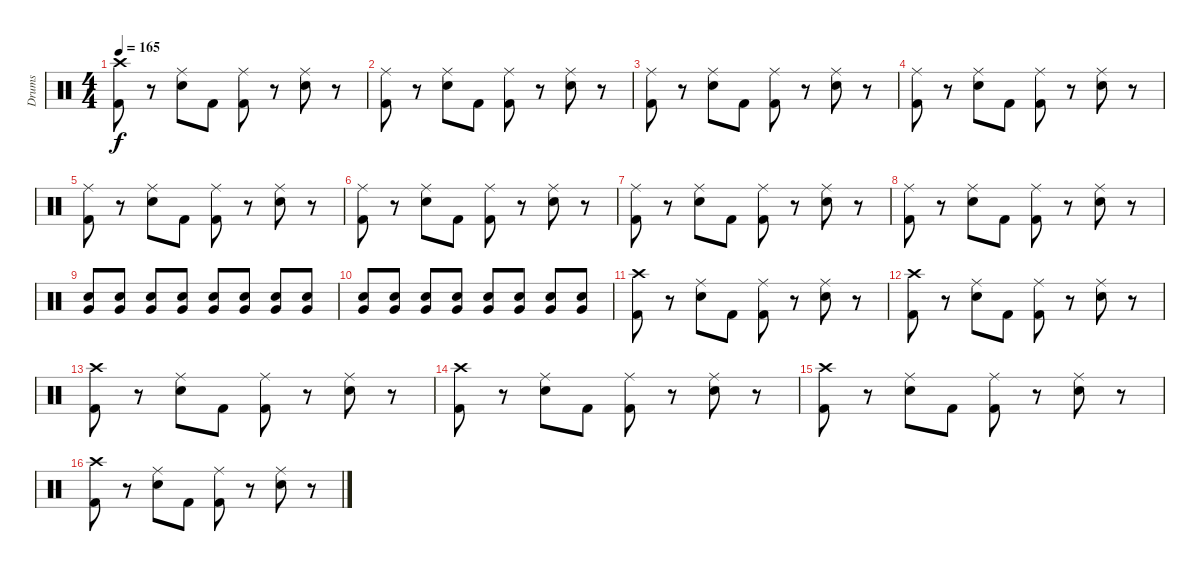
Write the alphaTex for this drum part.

\track ("Drums" "Drums") {instrument percussion}
\staff {score}
\articulation defaults
\ts (4 4)
\tempo 165
\clef neutral
\ks c
("Kick (hit) 2" "Crash high (hit)").8{dy f} r.8 ("Electric Snare (hit)" "Ride (middle)").8 "Kick (hit) 2".8 ("Ride (middle)" "Kick (hit) 2").8 r.8 ("Electric Snare (hit)" "Ride (middle)").8 r.8 |
("Kick (hit) 2" "Ride (middle)").8 r.8 ("Electric Snare (hit)" "Ride (middle)").8 "Kick (hit) 2".8 ("Ride (middle)" "Kick (hit) 2").8 r.8 ("Electric Snare (hit)" "Ride (middle)").8 r.8 |
("Kick (hit) 2" "Ride (middle)").8 r.8 ("Electric Snare (hit)" "Ride (middle)").8 "Kick (hit) 2".8 ("Ride (middle)" "Kick (hit) 2").8 r.8 ("Electric Snare (hit)" "Ride (middle)").8 r.8 |
("Kick (hit) 2" "Ride (middle)").8 r.8 ("Electric Snare (hit)" "Ride (middle)").8 "Kick (hit) 2".8 ("Ride (middle)" "Kick (hit) 2").8 r.8 ("Electric Snare (hit)" "Ride (middle)").8 r.8 |
("Kick (hit) 2" "Ride (middle)").8 r.8 ("Electric Snare (hit)" "Ride (middle)").8 "Kick (hit) 2".8 ("Ride (middle)" "Kick (hit) 2").8 r.8 ("Electric Snare (hit)" "Ride (middle)").8 r.8 |
("Kick (hit) 2" "Ride (middle)").8 r.8 ("Electric Snare (hit)" "Ride (middle)").8 "Kick (hit) 2".8 ("Ride (middle)" "Kick (hit) 2").8 r.8 ("Electric Snare (hit)" "Ride (middle)").8 r.8 |
("Kick (hit) 2" "Ride (middle)").8 r.8 ("Electric Snare (hit)" "Ride (middle)").8 "Kick (hit) 2".8 ("Ride (middle)" "Kick (hit) 2").8 r.8 ("Electric Snare (hit)" "Ride (middle)").8 r.8 |
("Kick (hit) 2" "Ride (middle)").8 r.8 ("Electric Snare (hit)" "Ride (middle)").8 "Kick (hit) 2".8 ("Ride (middle)" "Kick (hit) 2").8 r.8 ("Electric Snare (hit)" "Ride (middle)").8 r.8 |
("Very Low Tom (hit)" "Electric Snare (hit)").8 ("Very Low Tom (hit)" "Electric Snare (hit)").8 ("Very Low Tom (hit)" "Electric Snare (hit)").8 ("Very Low Tom (hit)" "Electric Snare (hit)").8 ("Very Low Tom (hit)" "Electric Snare (hit)").8 ("Very Low Tom (hit)" "Electric Snare (hit)").8 ("Very Low Tom (hit)" "Electric Snare (hit)").8 ("Very Low Tom (hit)" "Electric Snare (hit)").8 |
("Very Low Tom (hit)" "Electric Snare (hit)").8 ("Very Low Tom (hit)" "Electric Snare (hit)").8 ("Very Low Tom (hit)" "Electric Snare (hit)").8 ("Very Low Tom (hit)" "Electric Snare (hit)").8 ("Very Low Tom (hit)" "Electric Snare (hit)").8 ("Very Low Tom (hit)" "Electric Snare (hit)").8 ("Very Low Tom (hit)" "Electric Snare (hit)").8 ("Very Low Tom (hit)" "Electric Snare (hit)").8 |
("Crash high (hit)" "Kick (hit) 2").8 r.8 ("Ride (middle)" "Electric Snare (hit)").8 "Kick (hit) 2".8 ("Ride (middle)" "Kick (hit) 2").8 r.8 ("Ride (middle)" "Electric Snare (hit)").8 r.8 |
("Crash high (hit)" "Kick (hit) 2").8 r.8 ("Ride (middle)" "Electric Snare (hit)").8 "Kick (hit) 2".8 ("Ride (middle)" "Kick (hit) 2").8 r.8 ("Ride (middle)" "Electric Snare (hit)").8 r.8 |
("Crash high (hit)" "Kick (hit) 2").8 r.8 ("Ride (middle)" "Electric Snare (hit)").8 "Kick (hit) 2".8 ("Ride (middle)" "Kick (hit) 2").8 r.8 ("Ride (middle)" "Electric Snare (hit)").8 r.8 |
("Crash high (hit)" "Kick (hit) 2").8 r.8 ("Ride (middle)" "Electric Snare (hit)").8 "Kick (hit) 2".8 ("Ride (middle)" "Kick (hit) 2").8 r.8 ("Ride (middle)" "Electric Snare (hit)").8 r.8 |
("Crash high (hit)" "Kick (hit) 2").8 r.8 ("Ride (middle)" "Electric Snare (hit)").8 "Kick (hit) 2".8 ("Ride (middle)" "Kick (hit) 2").8 r.8 ("Ride (middle)" "Electric Snare (hit)").8 r.8 |
("Crash high (hit)" "Kick (hit) 2").8 r.8 ("Ride (middle)" "Electric Snare (hit)").8 "Kick (hit) 2".8 ("Ride (middle)" "Kick (hit) 2").8 r.8 ("Ride (middle)" "Electric Snare (hit)").8 r.8
